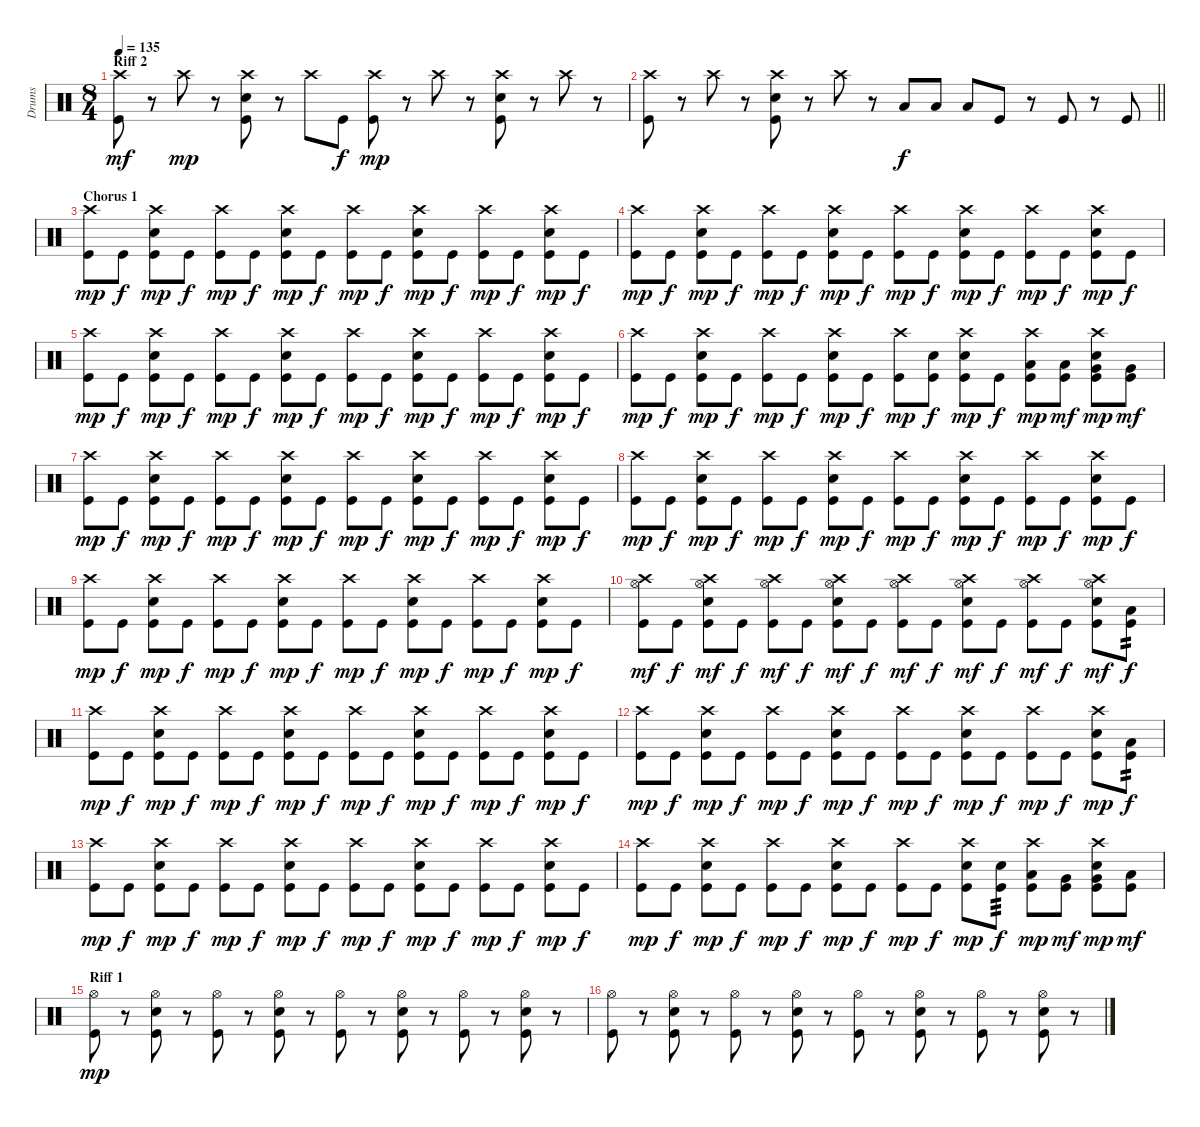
\track ("Drums" "Drums") {instrument percussion}
\staff {score}
\articulation defaults
\ts (8 4)
\section ("" "Riff 2")
\tempo 135
\clef neutral
\ks c
("Crash high (hit)" "Kick (hit)").8{dy mf} r.8 "Crash high (hit)".8{dy mp} r.8 ("Crash high (hit)" "Electric Snare (hit)" "Kick (hit)").8 r.8 "Crash high (hit)".8 "Kick (hit)".8{dy f} ("Crash high (hit)" "Kick (hit)").8{dy mp} r.8 "Crash high (hit)".8 r.8 ("Crash high (hit)" "Electric Snare (hit)" "Kick (hit)").8 r.8 "Crash high (hit)".8 r.8 |
\barLineRight lightlight
("Crash high (hit)" "Kick (hit)").8 r.8 "Crash high (hit)".8 r.8 ("Crash high (hit)" "Electric Snare (hit)" "Kick (hit)").8 r.8 "Crash high (hit)".8 r.8 "Low Tom (hit)".8{dy f} "Low Tom (hit)".8 "Low Tom (hit)".8 "Kick (hit)".8 r.8 "Kick (hit)".8 r.8 "Kick (hit)".8 |
\section ("" "Chorus 1")
("Crash high (hit)" "Kick (hit)").8{dy mp} "Kick (hit)".8{dy f} ("Crash high (hit)" "Electric Snare (hit)" "Kick (hit)").8{dy mp} "Kick (hit)".8{dy f} ("Crash high (hit)" "Kick (hit)").8{dy mp} "Kick (hit)".8{dy f} ("Crash high (hit)" "Electric Snare (hit)" "Kick (hit)").8{dy mp} "Kick (hit)".8{dy f} ("Crash high (hit)" "Kick (hit)").8{dy mp} "Kick (hit)".8{dy f} ("Crash high (hit)" "Electric Snare (hit)" "Kick (hit)").8{dy mp} "Kick (hit)".8{dy f} ("Crash high (hit)" "Kick (hit)").8{dy mp} "Kick (hit)".8{dy f} ("Crash high (hit)" "Electric Snare (hit)" "Kick (hit)").8{dy mp} "Kick (hit)".8{dy f} |
("Crash high (hit)" "Kick (hit)").8{dy mp} "Kick (hit)".8{dy f} ("Crash high (hit)" "Electric Snare (hit)" "Kick (hit)").8{dy mp} "Kick (hit)".8{dy f} ("Crash high (hit)" "Kick (hit)").8{dy mp} "Kick (hit)".8{dy f} ("Crash high (hit)" "Electric Snare (hit)" "Kick (hit)").8{dy mp} "Kick (hit)".8{dy f} ("Crash high (hit)" "Kick (hit)").8{dy mp} "Kick (hit)".8{dy f} ("Crash high (hit)" "Electric Snare (hit)" "Kick (hit)").8{dy mp} "Kick (hit)".8{dy f} ("Crash high (hit)" "Kick (hit)").8{dy mp} "Kick (hit)".8{dy f} ("Crash high (hit)" "Electric Snare (hit)" "Kick (hit)").8{dy mp} "Kick (hit)".8{dy f} |
("Crash high (hit)" "Kick (hit)").8{dy mp} "Kick (hit)".8{dy f} ("Crash high (hit)" "Electric Snare (hit)" "Kick (hit)").8{dy mp} "Kick (hit)".8{dy f} ("Crash high (hit)" "Kick (hit)").8{dy mp} "Kick (hit)".8{dy f} ("Crash high (hit)" "Electric Snare (hit)" "Kick (hit)").8{dy mp} "Kick (hit)".8{dy f} ("Crash high (hit)" "Kick (hit)").8{dy mp} "Kick (hit)".8{dy f} ("Crash high (hit)" "Electric Snare (hit)" "Kick (hit)").8{dy mp} "Kick (hit)".8{dy f} ("Crash high (hit)" "Kick (hit)").8{dy mp} "Kick (hit)".8{dy f} ("Crash high (hit)" "Electric Snare (hit)" "Kick (hit)").8{dy mp} "Kick (hit)".8{dy f} |
("Crash high (hit)" "Kick (hit)").8{dy mp} "Kick (hit)".8{dy f} ("Crash high (hit)" "Electric Snare (hit)" "Kick (hit)").8{dy mp} "Kick (hit)".8{dy f} ("Crash high (hit)" "Kick (hit)").8{dy mp} "Kick (hit)".8{dy f} ("Crash high (hit)" "Electric Snare (hit)" "Kick (hit)").8{dy mp} "Kick (hit)".8{dy f} ("Crash high (hit)" "Kick (hit)").8{dy mp} ("Electric Snare (hit)" "Kick (hit)").8{dy f} ("Crash high (hit)" "Electric Snare (hit)" "Kick (hit)").8{dy mp} "Kick (hit)".8{dy f} ("Crash high (hit)" "Low Tom (hit)" "Kick (hit)").8{dy mp} ("Low Tom (hit)" "Kick (hit)").8{dy mf} ("Crash high (hit)" "Very Low Tom (hit)" "Electric Snare (hit)" "Kick (hit)").8{dy mp} ("Very Low Tom (hit)" "Kick (hit)").8{dy mf} |
("Crash high (hit)" "Kick (hit)").8{dy mp} "Kick (hit)".8{dy f} ("Crash high (hit)" "Electric Snare (hit)" "Kick (hit)").8{dy mp} "Kick (hit)".8{dy f} ("Crash high (hit)" "Kick (hit)").8{dy mp} "Kick (hit)".8{dy f} ("Crash high (hit)" "Electric Snare (hit)" "Kick (hit)").8{dy mp} "Kick (hit)".8{dy f} ("Crash high (hit)" "Kick (hit)").8{dy mp} "Kick (hit)".8{dy f} ("Crash high (hit)" "Electric Snare (hit)" "Kick (hit)").8{dy mp} "Kick (hit)".8{dy f} ("Crash high (hit)" "Kick (hit)").8{dy mp} "Kick (hit)".8{dy f} ("Crash high (hit)" "Electric Snare (hit)" "Kick (hit)").8{dy mp} "Kick (hit)".8{dy f} |
("Crash high (hit)" "Kick (hit)").8{dy mp} "Kick (hit)".8{dy f} ("Crash high (hit)" "Electric Snare (hit)" "Kick (hit)").8{dy mp} "Kick (hit)".8{dy f} ("Crash high (hit)" "Kick (hit)").8{dy mp} "Kick (hit)".8{dy f} ("Crash high (hit)" "Electric Snare (hit)" "Kick (hit)").8{dy mp} "Kick (hit)".8{dy f} ("Crash high (hit)" "Kick (hit)").8{dy mp} "Kick (hit)".8{dy f} ("Crash high (hit)" "Electric Snare (hit)" "Kick (hit)").8{dy mp} "Kick (hit)".8{dy f} ("Crash high (hit)" "Kick (hit)").8{dy mp} "Kick (hit)".8{dy f} ("Crash high (hit)" "Electric Snare (hit)" "Kick (hit)").8{dy mp} "Kick (hit)".8{dy f} |
("Crash high (hit)" "Kick (hit)").8{dy mp} "Kick (hit)".8{dy f} ("Crash high (hit)" "Electric Snare (hit)" "Kick (hit)").8{dy mp} "Kick (hit)".8{dy f} ("Crash high (hit)" "Kick (hit)").8{dy mp} "Kick (hit)".8{dy f} ("Crash high (hit)" "Electric Snare (hit)" "Kick (hit)").8{dy mp} "Kick (hit)".8{dy f} ("Crash high (hit)" "Kick (hit)").8{dy mp} "Kick (hit)".8{dy f} ("Crash high (hit)" "Electric Snare (hit)" "Kick (hit)").8{dy mp} "Kick (hit)".8{dy f} ("Crash high (hit)" "Kick (hit)").8{dy mp} "Kick (hit)".8{dy f} ("Crash high (hit)" "Electric Snare (hit)" "Kick (hit)").8{dy mp} "Kick (hit)".8{dy f} |
("Crash high (hit)" "Hi-Hat (open)" "Kick (hit)").8{dy mf} "Kick (hit)".8{dy f} ("Crash high (hit)" "Hi-Hat (open)" "Electric Snare (hit)" "Kick (hit)").8{dy mf} "Kick (hit)".8{dy f} ("Crash high (hit)" "Hi-Hat (open)" "Kick (hit)").8{dy mf} "Kick (hit)".8{dy f} ("Crash high (hit)" "Hi-Hat (open)" "Electric Snare (hit)" "Kick (hit)").8{dy mf} "Kick (hit)".8{dy f} ("Crash high (hit)" "Hi-Hat (open)" "Kick (hit)").8{dy mf} "Kick (hit)".8{dy f} ("Crash high (hit)" "Hi-Hat (open)" "Electric Snare (hit)" "Kick (hit)").8{dy mf} "Kick (hit)".8{dy f} ("Crash high (hit)" "Hi-Hat (open)" "Kick (hit)").8{dy mf} "Kick (hit)".8{dy f} ("Crash high (hit)" "Hi-Hat (open)" "Electric Snare (hit)" "Kick (hit)").8{dy mf} ("Low Tom (hit)" "Kick (hit)").8{tp 2 dy f} |
("Crash high (hit)" "Kick (hit)").8{dy mp} "Kick (hit)".8{dy f} ("Crash high (hit)" "Electric Snare (hit)" "Kick (hit)").8{dy mp} "Kick (hit)".8{dy f} ("Crash high (hit)" "Kick (hit)").8{dy mp} "Kick (hit)".8{dy f} ("Crash high (hit)" "Electric Snare (hit)" "Kick (hit)").8{dy mp} "Kick (hit)".8{dy f} ("Crash high (hit)" "Kick (hit)").8{dy mp} "Kick (hit)".8{dy f} ("Crash high (hit)" "Electric Snare (hit)" "Kick (hit)").8{dy mp} "Kick (hit)".8{dy f} ("Crash high (hit)" "Kick (hit)").8{dy mp} "Kick (hit)".8{dy f} ("Crash high (hit)" "Electric Snare (hit)" "Kick (hit)").8{dy mp} "Kick (hit)".8{dy f} |
("Crash high (hit)" "Kick (hit)").8{dy mp} "Kick (hit)".8{dy f} ("Crash high (hit)" "Electric Snare (hit)" "Kick (hit)").8{dy mp} "Kick (hit)".8{dy f} ("Crash high (hit)" "Kick (hit)").8{dy mp} "Kick (hit)".8{dy f} ("Crash high (hit)" "Electric Snare (hit)" "Kick (hit)").8{dy mp} "Kick (hit)".8{dy f} ("Crash high (hit)" "Kick (hit)").8{dy mp} "Kick (hit)".8{dy f} ("Crash high (hit)" "Electric Snare (hit)" "Kick (hit)").8{dy mp} "Kick (hit)".8{dy f} ("Crash high (hit)" "Kick (hit)").8{dy mp} "Kick (hit)".8{dy f} ("Crash high (hit)" "Electric Snare (hit)" "Kick (hit)").8{dy mp} ("Low Tom (hit)" "Kick (hit)").8{tp 2 dy f} |
("Crash high (hit)" "Kick (hit)").8{dy mp} "Kick (hit)".8{dy f} ("Crash high (hit)" "Electric Snare (hit)" "Kick (hit)").8{dy mp} "Kick (hit)".8{dy f} ("Crash high (hit)" "Kick (hit)").8{dy mp} "Kick (hit)".8{dy f} ("Crash high (hit)" "Electric Snare (hit)" "Kick (hit)").8{dy mp} "Kick (hit)".8{dy f} ("Crash high (hit)" "Kick (hit)").8{dy mp} "Kick (hit)".8{dy f} ("Crash high (hit)" "Electric Snare (hit)" "Kick (hit)").8{dy mp} "Kick (hit)".8{dy f} ("Crash high (hit)" "Kick (hit)").8{dy mp} "Kick (hit)".8{dy f} ("Crash high (hit)" "Electric Snare (hit)" "Kick (hit)").8{dy mp} "Kick (hit)".8{dy f} |
("Crash high (hit)" "Kick (hit)").8{dy mp} "Kick (hit)".8{dy f} ("Crash high (hit)" "Electric Snare (hit)" "Kick (hit)").8{dy mp} "Kick (hit)".8{dy f} ("Crash high (hit)" "Kick (hit)").8{dy mp} "Kick (hit)".8{dy f} ("Crash high (hit)" "Electric Snare (hit)" "Kick (hit)").8{dy mp} "Kick (hit)".8{dy f} ("Crash high (hit)" "Kick (hit)").8{dy mp} "Kick (hit)".8{dy f} ("Crash high (hit)" "Electric Snare (hit)" "Kick (hit)").8{dy mp} ("Electric Snare (hit)" "Kick (hit)").8{tp 3 dy f} ("Crash high (hit)" "Low Tom (hit)" "Kick (hit)").8{dy mp} ("Very Low Tom (hit)" "Kick (hit)").8{dy mf} ("Crash high (hit)" "Very Low Tom (hit)" "Electric Snare (hit)" "Kick (hit)").8{dy mp} ("Low Floor Tom (hit)" "Kick (hit)").8{dy mf} |
\section ("" "Riff 1")
("Hi-Hat (open)" "Kick (hit)").8{dy mp} r.8 ("Hi-Hat (open)" "Electric Snare (hit)" "Kick (hit)").8 r.8 ("Hi-Hat (open)" "Kick (hit)").8 r.8 ("Hi-Hat (open)" "Electric Snare (hit)" "Kick (hit)").8 r.8 ("Hi-Hat (open)" "Kick (hit)").8 r.8 ("Hi-Hat (open)" "Electric Snare (hit)" "Kick (hit)").8 r.8 ("Hi-Hat (open)" "Kick (hit)").8 r.8 ("Hi-Hat (open)" "Electric Snare (hit)" "Kick (hit)").8 r.8 |
("Hi-Hat (open)" "Kick (hit)").8 r.8 ("Hi-Hat (open)" "Electric Snare (hit)" "Kick (hit)").8 r.8 ("Hi-Hat (open)" "Kick (hit)").8 r.8 ("Hi-Hat (open)" "Electric Snare (hit)" "Kick (hit)").8 r.8 ("Hi-Hat (open)" "Kick (hit)").8 r.8 ("Hi-Hat (open)" "Electric Snare (hit)" "Kick (hit)").8 r.8 ("Hi-Hat (open)" "Kick (hit)").8 r.8 ("Hi-Hat (open)" "Electric Snare (hit)" "Kick (hit)").8 r.8
